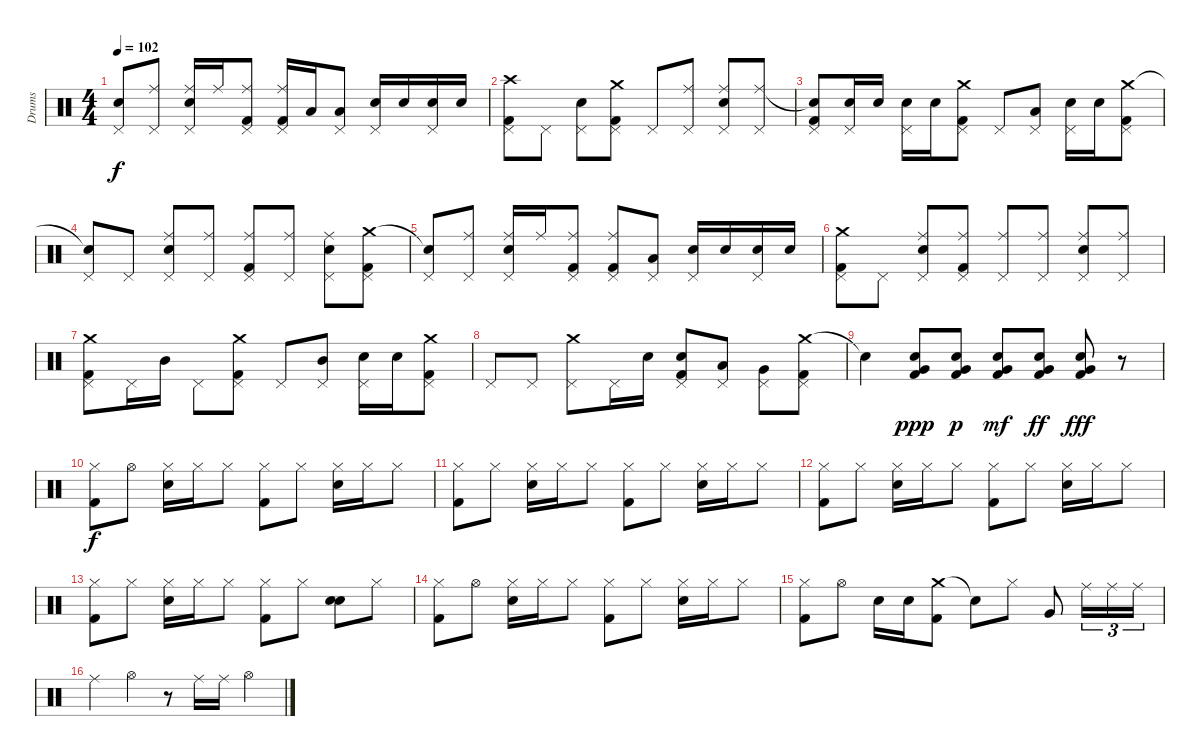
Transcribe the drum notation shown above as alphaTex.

\track ("Drums" "Drums") {instrument percussion}
\staff {score}
\articulation defaults
\ts (4 4)
\tempo 102
\clef neutral
\ks c
("Snare (hit)"{t} "Pedal Hi-Hat (hit)").8{dy f} ("Ride (middle)" "Pedal Hi-Hat (hit)").8 ("Ride (middle)" "Pedal Hi-Hat (hit)" "Snare (hit) 2").16 "Ride (middle)".16 ("Ride (middle)" "Pedal Hi-Hat (hit)" "Kick (hit) 2").8 ("Ride (middle)" "Pedal Hi-Hat (hit)" "Kick (hit) 2").16 "Low Tom (hit)".16 ("Pedal Hi-Hat (hit)" "Low Tom (hit)").8 ("Pedal Hi-Hat (hit)" "Snare (hit) 2").16 "Snare (hit) 2".16 ("Pedal Hi-Hat (hit)" "Snare (hit) 2").16 "Snare (hit) 2".16 |
("Crash high (hit)" "Pedal Hi-Hat (hit)" "Kick (hit) 2").8 "Pedal Hi-Hat (hit)".8 ("Pedal Hi-Hat (hit)" "Snare (hit) 2").8 ("Crash medium (hit)" "Pedal Hi-Hat (hit)" "Kick (hit) 2").8 "Pedal Hi-Hat (hit)".8 ("Ride (middle)" "Pedal Hi-Hat (hit)").8 ("Ride (middle)" "Pedal Hi-Hat (hit)" "Snare (hit) 2").8 ("Ride (middle)" "Pedal Hi-Hat (hit)").8 |
("Snare (hit)"{t} "Pedal Hi-Hat (hit)" "Kick (hit) 2").8 ("Pedal Hi-Hat (hit)" "Snare (hit) 2").16 "Snare (hit) 2".16 ("Pedal Hi-Hat (hit)" "Snare (hit) 2").16 "Snare (hit) 2".16 ("Crash medium (hit)" "Pedal Hi-Hat (hit)" "Kick (hit) 2").8 "Pedal Hi-Hat (hit)".8 ("Pedal Hi-Hat (hit)" "Low Tom (hit)").8 ("Pedal Hi-Hat (hit)" "Snare (hit) 2").16 "Snare (hit) 2".16 ("Crash medium (hit)" "Pedal Hi-Hat (hit)" "Kick (hit) 2").8 |
("Snare (hit)"{t} "Pedal Hi-Hat (hit)").8 "Pedal Hi-Hat (hit)".8 ("Ride (middle)" "Pedal Hi-Hat (hit)" "Snare (hit) 2").8 ("Ride (middle)" "Pedal Hi-Hat (hit)").8 ("Ride (middle)" "Pedal Hi-Hat (hit)" "Kick (hit) 2").8 ("Ride (middle)" "Pedal Hi-Hat (hit)").8 ("Ride (middle)" "Pedal Hi-Hat (hit)" "Snare (hit) 2").8 ("Crash medium (hit)" "Pedal Hi-Hat (hit)" "Kick (hit) 2").8 |
("Snare (hit)"{t} "Pedal Hi-Hat (hit)").8 ("Ride (middle)" "Pedal Hi-Hat (hit)").8 ("Ride (middle)" "Pedal Hi-Hat (hit)" "Snare (hit) 2").16 "Ride (middle)".16 ("Ride (middle)" "Pedal Hi-Hat (hit)" "Kick (hit) 2").8 ("Ride (middle)" "Pedal Hi-Hat (hit)" "Kick (hit) 2").8 ("Pedal Hi-Hat (hit)" "Low Tom (hit)").8 ("Pedal Hi-Hat (hit)" "Snare (hit) 2").16 "Snare (hit) 2".16 ("Pedal Hi-Hat (hit)" "Snare (hit) 2").16 "Snare (hit) 2".16 |
("Crash medium (hit)" "Pedal Hi-Hat (hit)" "Kick (hit) 2").8 "Pedal Hi-Hat (hit)".8 ("Ride (middle)" "Pedal Hi-Hat (hit)" "Snare (hit) 2").8 ("Ride (middle)" "Pedal Hi-Hat (hit)" "Kick (hit) 2").8 ("Ride (middle)" "Pedal Hi-Hat (hit)").8 ("Ride (middle)" "Pedal Hi-Hat (hit)").8 ("Ride (middle)" "Pedal Hi-Hat (hit)" "Snare (hit) 2").8 ("Ride (middle)" "Pedal Hi-Hat (hit)").8 |
("Crash medium (hit)" "Pedal Hi-Hat (hit)" "Kick (hit) 2").8 "Pedal Hi-Hat (hit)".16 "Mid Tom (hit)".16 "Pedal Hi-Hat (hit)".8 ("Crash medium (hit)" "Pedal Hi-Hat (hit)" "Kick (hit) 2").8 "Pedal Hi-Hat (hit)".8 ("Pedal Hi-Hat (hit)" "Mid Tom (hit)").8 ("Pedal Hi-Hat (hit)" "Snare (hit) 2").16 "Snare (hit) 2".16 ("Crash medium (hit)" "Pedal Hi-Hat (hit)" "Kick (hit) 2").8 |
"Pedal Hi-Hat (hit)".8 "Pedal Hi-Hat (hit)".8 ("Crash medium (hit)" "Pedal Hi-Hat (hit)").8 "Pedal Hi-Hat (hit)".16 "Snare (hit) 2".16 ("Pedal Hi-Hat (hit)" "Snare (hit) 2" "Kick (hit) 2").8 ("Pedal Hi-Hat (hit)" "Low Tom (hit)").8 ("Pedal Hi-Hat (hit)" "Very Low Tom (hit)").8 ("Crash medium (hit)" "Pedal Hi-Hat (hit)" "Kick (hit) 2").8 |
"Snare (hit)"{t}.4 ("Snare (hit) 2" "Very Low Tom (hit)" "Kick (hit) 2").8{dy ppp} ("Snare (hit) 2" "Very Low Tom (hit)" "Kick (hit) 2").8{dy p} ("Snare (hit) 2" "Very Low Tom (hit)" "Kick (hit) 2").8{dy mf} ("Snare (hit) 2" "Very Low Tom (hit)" "Kick (hit) 2").8{dy ff} ("Snare (hit) 2" "Very Low Tom (hit)" "Kick (hit) 2").8{dy fff} r.8 |
("Hi-Hat (closed)" "Kick (hit) 2").8{dy f} "Hi-Hat (open)".8 ("Hi-Hat (closed)" "Snare (hit) 2").16 "Hi-Hat (closed)".16 "Hi-Hat (closed)".8 ("Hi-Hat (closed)" "Kick (hit) 2").8 "Hi-Hat (closed)".8 ("Hi-Hat (closed)" "Snare (hit) 2").16 "Hi-Hat (closed)".16 "Hi-Hat (closed)".8 |
("Hi-Hat (closed)" "Kick (hit) 2").8 "Hi-Hat (closed)".8 ("Hi-Hat (closed)" "Snare (hit) 2").16 "Hi-Hat (closed)".16 "Hi-Hat (closed)".8 ("Hi-Hat (closed)" "Kick (hit) 2").8 "Hi-Hat (closed)".8 ("Hi-Hat (closed)" "Snare (hit) 2").16 "Hi-Hat (closed)".16 "Hi-Hat (closed)".8 |
("Hi-Hat (closed)" "Kick (hit) 2").8 "Hi-Hat (closed)".8 ("Hi-Hat (closed)" "Snare (hit) 2").16 "Hi-Hat (closed)".16 "Hi-Hat (closed)".8 ("Hi-Hat (closed)" "Kick (hit) 2").8 "Hi-Hat (closed)".8 ("Hi-Hat (closed)" "Snare (hit) 2").16 "Hi-Hat (closed)".16 "Hi-Hat (closed)".8 |
("Hi-Hat (closed)" "Kick (hit) 2").8 "Hi-Hat (closed)".8 ("Hi-Hat (closed)" "Snare (hit) 2").16 "Hi-Hat (closed)".16 "Hi-Hat (closed)".8 ("Hi-Hat (closed)" "Kick (hit) 2").8 "Hi-Hat (closed)".8 ("Snare (hit) 2" "Snare (hit) 2").8 "Hi-Hat (closed)".8 |
("Hi-Hat (closed)" "Kick (hit) 2").8 "Hi-Hat (open)".8 ("Hi-Hat (closed)" "Snare (hit) 2").16 "Hi-Hat (closed)".16 "Hi-Hat (closed)".8 ("Hi-Hat (closed)" "Kick (hit) 2").8 "Hi-Hat (closed)".8 ("Hi-Hat (closed)" "Snare (hit) 2").16 "Hi-Hat (closed)".16 "Hi-Hat (closed)".8 |
("Hi-Hat (closed)" "Kick (hit) 2").8 "Hi-Hat (open)".8 "Snare (hit) 2".16 "Snare (hit) 2".16 ("Crash medium (hit)" "Kick (hit) 2").8 "Snare (hit)"{t}.8 "Hi-Hat (closed)".8 "Very Low Tom (hit)".8 "Ride (middle)".16{tu (3 2)} "Ride (middle)".16{tu (3 2)} "Ride (middle)".16{tu (3 2)} |
"Ride (middle)".4 "Hi-Hat (open)".4 r.8 "Ride (middle)".16 "Ride (middle)".16 "Hi-Hat (open)".4
